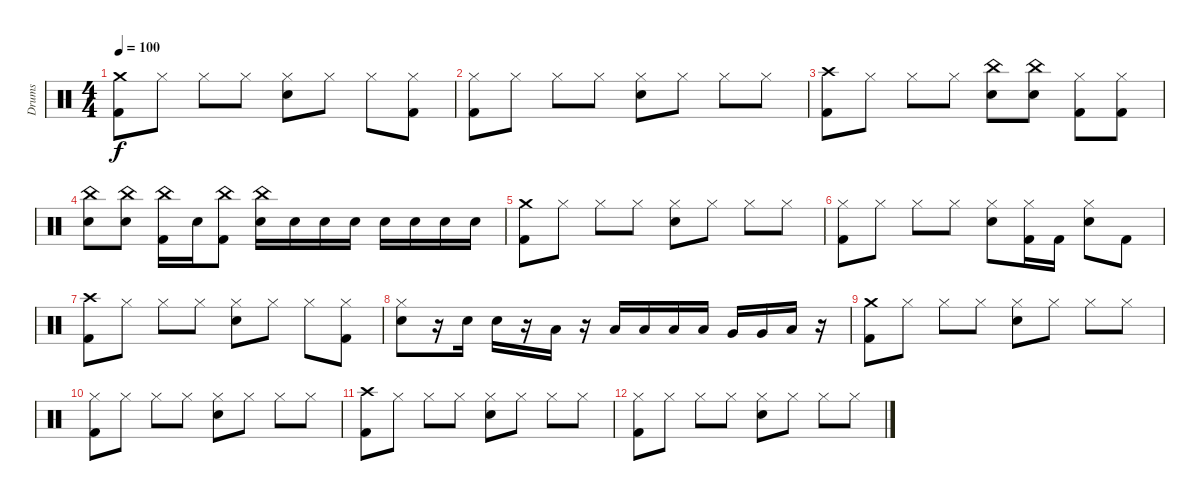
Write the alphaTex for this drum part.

\track ("Drums" "Drums") {instrument percussion}
\staff {score}
\articulation defaults
\ts (4 4)
\tempo 100
\clef neutral
\ks c
("Crash medium (hit)" "Kick (hit) 2").8{dy f} "Hi-Hat (closed)".8 "Hi-Hat (closed)".8 "Hi-Hat (closed)".8 ("Hi-Hat (closed)" "Electric Snare (hit)").8 "Hi-Hat (closed)".8 "Hi-Hat (closed)".8 ("Hi-Hat (closed)" "Kick (hit) 2").8 |
("Hi-Hat (closed)" "Kick (hit) 2").8 "Hi-Hat (closed)".8 "Hi-Hat (closed)".8 "Hi-Hat (closed)".8 ("Hi-Hat (closed)" "Electric Snare (hit)").8 "Hi-Hat (closed)".8 "Hi-Hat (closed)".8 "Hi-Hat (closed)".8 |
("Crash high (hit)" "Kick (hit) 2").8 "Hi-Hat (closed)".8 "Hi-Hat (closed)".8 "Hi-Hat (closed)".8 ("China (hit)" "Electric Snare (hit)").8 ("China (hit)" "Electric Snare (hit)").8 ("Hi-Hat (closed)" "Kick (hit) 2").8 ("Hi-Hat (closed)" "Kick (hit) 2").8 |
("China (hit)" "Electric Snare (hit)").8 ("China (hit)" "Electric Snare (hit)").8 ("China (hit)" "Kick (hit) 2").16 "Electric Snare (hit)".16 ("China (hit)" "Kick (hit) 2").8 ("China (hit)" "Electric Snare (hit)").16 "Electric Snare (hit)".16 "Electric Snare (hit)".16 "Electric Snare (hit)".16 "Electric Snare (hit)".16 "Electric Snare (hit)".16 "Electric Snare (hit)".16 "Electric Snare (hit)".16 |
("Crash medium (hit)" "Kick (hit) 2").8{volume 0} "Hi-Hat (closed)".8 "Hi-Hat (closed)".8 "Hi-Hat (closed)".8 ("Hi-Hat (closed)" "Electric Snare (hit)").8 "Hi-Hat (closed)".8 "Hi-Hat (closed)".8 "Hi-Hat (closed)".8 |
("Hi-Hat (closed)" "Kick (hit) 2").8 "Hi-Hat (closed)".8 "Hi-Hat (closed)".8 "Hi-Hat (closed)".8 ("Hi-Hat (closed)" "Electric Snare (hit)").8 ("Hi-Hat (closed)" "Kick (hit) 2").16 "Kick (hit) 2".16 ("Hi-Hat (closed)" "Electric Snare (hit)").8 "Kick (hit) 2".8 |
("Crash high (hit)" "Kick (hit) 2").8 "Hi-Hat (closed)".8 "Hi-Hat (closed)".8 "Hi-Hat (closed)".8 ("Hi-Hat (closed)" "Electric Snare (hit)").8 "Hi-Hat (closed)".8 "Hi-Hat (closed)".8 ("Hi-Hat (closed)" "Kick (hit) 2").8 |
("Hi-Hat (closed)" "Electric Snare (hit)").8 r.16 "Electric Snare (hit)".16 "Electric Snare (hit)".16 r.16 "Low Floor Tom (hit)".16 r.16 "Low Tom (hit)".16 "Low Tom (hit)".16 "Low Tom (hit)".16 "Low Tom (hit)".16 "Very Low Tom (hit)".16 "Very Low Tom (hit)".16 "Low Floor Tom (hit)".16 r.16 |
("Crash medium (hit)" "Kick (hit) 2").8 "Hi-Hat (closed)".8 "Hi-Hat (closed)".8 "Hi-Hat (closed)".8 ("Hi-Hat (closed)" "Electric Snare (hit)").8 "Hi-Hat (closed)".8 "Hi-Hat (closed)".8 "Hi-Hat (closed)".8 |
("Hi-Hat (closed)" "Kick (hit) 2").8 "Hi-Hat (closed)".8 "Hi-Hat (closed)".8 "Hi-Hat (closed)".8 ("Hi-Hat (closed)" "Electric Snare (hit)").8 "Hi-Hat (closed)".8 "Hi-Hat (closed)".8 "Hi-Hat (closed)".8 |
("Crash high (hit)" "Kick (hit) 2").8 "Hi-Hat (closed)".8 "Hi-Hat (closed)".8 "Hi-Hat (closed)".8 ("Hi-Hat (closed)" "Electric Snare (hit)").8 "Hi-Hat (closed)".8 "Hi-Hat (closed)".8 "Hi-Hat (closed)".8 |
("Hi-Hat (closed)" "Kick (hit) 2").8 "Hi-Hat (closed)".8 "Hi-Hat (closed)".8 "Hi-Hat (closed)".8 ("Hi-Hat (closed)" "Electric Snare (hit)").8 "Hi-Hat (closed)".8 "Hi-Hat (closed)".8 "Hi-Hat (closed)".8
